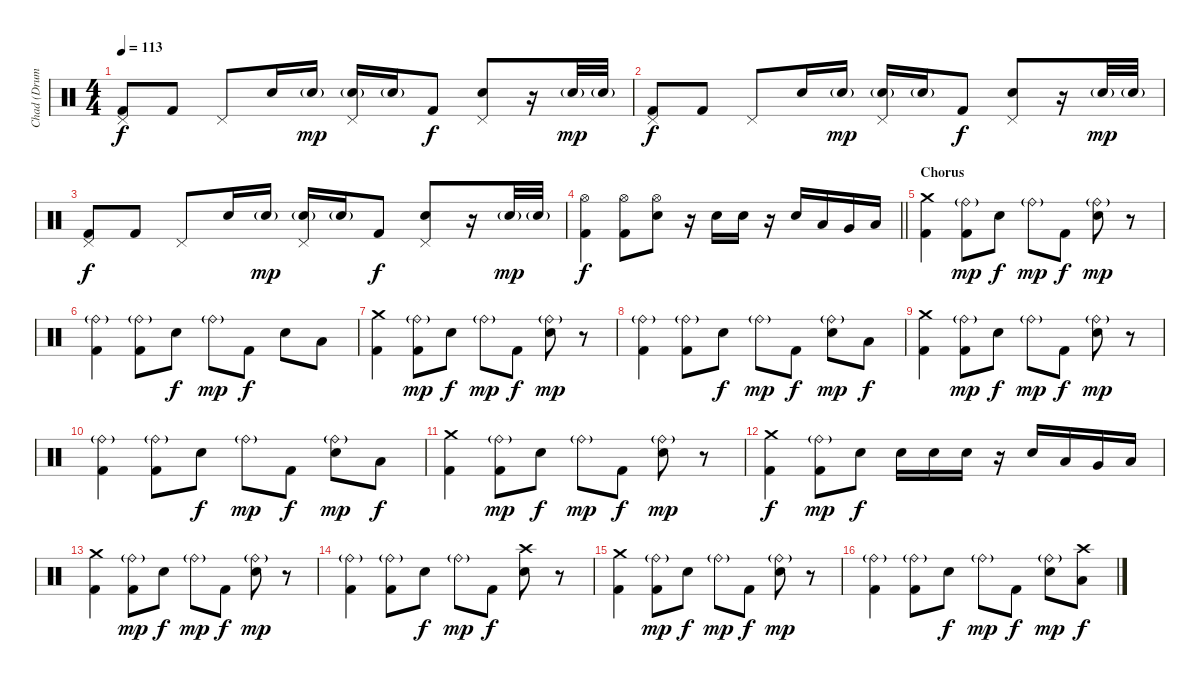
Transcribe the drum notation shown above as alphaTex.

\track ("Chad (Drums)" "Chad (Drum") {instrument percussion}
\staff {score}
\articulation defaults
\ts (4 4)
\tempo 113
\clef neutral
\ks c
("Pedal Hi-Hat (hit)" "Kick (hit) 2").8{dy f} "Kick (hit) 2".8 "Pedal Hi-Hat (hit)".8 "Snare (hit) 2".16 "Snare (hit) 2"{g}.16{dy mp} ("Pedal Hi-Hat (hit)" "Snare (hit) 2"{g}).16 "Snare (hit) 2"{g}.16 "Kick (hit) 2".8{dy f} ("Pedal Hi-Hat (hit)" "Snare (hit) 2").8 r.16 "Snare (hit) 2"{g}.32{dy mp} "Snare (hit) 2"{g}.32 |
("Pedal Hi-Hat (hit)" "Kick (hit) 2").8{dy f} "Kick (hit) 2".8 "Pedal Hi-Hat (hit)".8 "Snare (hit) 2".16 "Snare (hit) 2"{g}.16{dy mp} ("Pedal Hi-Hat (hit)" "Snare (hit) 2"{g}).16 "Snare (hit) 2"{g}.16 "Kick (hit) 2".8{dy f} ("Pedal Hi-Hat (hit)" "Snare (hit) 2").8 r.16 "Snare (hit) 2"{g}.32{dy mp} "Snare (hit) 2"{g}.32 |
("Pedal Hi-Hat (hit)" "Kick (hit) 2").8{dy f} "Kick (hit) 2".8 "Pedal Hi-Hat (hit)".8 "Snare (hit) 2".16 "Snare (hit) 2"{g}.16{dy mp} ("Pedal Hi-Hat (hit)" "Snare (hit) 2"{g}).16 "Snare (hit) 2"{g}.16 "Kick (hit) 2".8{dy f} ("Pedal Hi-Hat (hit)" "Snare (hit) 2").8 r.16 "Snare (hit) 2"{g}.32{dy mp} "Snare (hit) 2"{g}.32 |
\barLineRight lightlight
("Hi-Hat (open)" "Kick (hit) 2").4{dy f} ("Hi-Hat (open)" "Kick (hit) 2").8 ("Hi-Hat (open)" "Snare (hit) 2").8 r.16 "Snare (hit) 2".16 "Snare (hit) 2".16 r.16 "Snare (hit) 2".16 "Low Tom (hit)".16 "Very Low Tom (hit)".16 "Low Floor Tom (hit)".16 |
\section ("" "Chorus")
("Crash medium (hit)" "Kick (hit) 2").4 ("Ride (bell)"{g} "Kick (hit) 2").8{dy mp} "Snare (hit) 2".8{dy f} "Ride (bell)"{g}.8{dy mp} "Kick (hit) 2".8{dy f} ("Ride (bell)"{g} "Snare (hit) 2").8{dy mp} r.8 |
("Ride (bell)"{g} "Kick (hit) 2").4 ("Ride (bell)"{g} "Kick (hit) 2").8 "Snare (hit) 2".8{dy f} "Ride (bell)"{g}.8{dy mp} "Kick (hit) 2".8{dy f} "Snare (hit) 2".8 "Low Floor Tom (hit)".8 |
("Crash medium (hit)" "Kick (hit) 2").4 ("Ride (bell)"{g} "Kick (hit) 2").8{dy mp} "Snare (hit) 2".8{dy f} "Ride (bell)"{g}.8{dy mp} "Kick (hit) 2".8{dy f} ("Ride (bell)"{g} "Snare (hit) 2").8{dy mp} r.8 |
("Ride (bell)"{g} "Kick (hit) 2").4 ("Ride (bell)"{g} "Kick (hit) 2").8 "Snare (hit) 2".8{dy f} "Ride (bell)"{g}.8{dy mp} "Kick (hit) 2".8{dy f} ("Ride (bell)"{g} "Snare (hit) 2").8{dy mp} "Low Floor Tom (hit)".8{dy f} |
("Crash medium (hit)" "Kick (hit) 2").4 ("Ride (bell)"{g} "Kick (hit) 2").8{dy mp} "Snare (hit) 2".8{dy f} "Ride (bell)"{g}.8{dy mp} "Kick (hit) 2".8{dy f} ("Ride (bell)"{g} "Snare (hit) 2").8{dy mp} r.8 |
("Ride (bell)"{g} "Kick (hit) 2").4 ("Ride (bell)"{g} "Kick (hit) 2").8 "Snare (hit) 2".8{dy f} "Ride (bell)"{g}.8{dy mp} "Kick (hit) 2".8{dy f} ("Ride (bell)"{g} "Snare (hit) 2").8{dy mp} "Low Floor Tom (hit)".8{dy f} |
("Crash medium (hit)" "Kick (hit) 2").4 ("Ride (bell)"{g} "Kick (hit) 2").8{dy mp} "Snare (hit) 2".8{dy f} "Ride (bell)"{g}.8{dy mp} "Kick (hit) 2".8{dy f} ("Ride (bell)"{g} "Snare (hit) 2").8{dy mp} r.8 |
("Crash medium (hit)" "Kick (hit) 2").4{dy f} ("Ride (bell)"{g} "Kick (hit) 2").8{dy mp} "Snare (hit) 2".8{dy f} "Snare (hit) 2".16 "Snare (hit) 2".16 "Snare (hit) 2".16 r.16 "Snare (hit) 2".16 "Low Tom (hit)".16 "Very Low Tom (hit)".16 "Low Floor Tom (hit)".16 |
("Crash medium (hit)" "Kick (hit) 2").4 ("Ride (bell)"{g} "Kick (hit) 2").8{dy mp} "Snare (hit) 2".8{dy f} "Ride (bell)"{g}.8{dy mp} "Kick (hit) 2".8{dy f} ("Ride (bell)"{g} "Snare (hit) 2").8{dy mp} r.8 |
("Ride (bell)"{g} "Kick (hit) 2").4 ("Ride (bell)"{g} "Kick (hit) 2").8 "Snare (hit) 2".8{dy f} "Ride (bell)"{g}.8{dy mp} "Kick (hit) 2".8{dy f} ("Crash high (hit)" "Snare (hit) 2").8 r.8 |
("Crash medium (hit)" "Kick (hit) 2").4 ("Ride (bell)"{g} "Kick (hit) 2").8{dy mp} "Snare (hit) 2".8{dy f} "Ride (bell)"{g}.8{dy mp} "Kick (hit) 2".8{dy f} ("Ride (bell)"{g} "Snare (hit) 2").8{dy mp} r.8 |
("Ride (bell)"{g} "Kick (hit) 2").4 ("Ride (bell)"{g} "Kick (hit) 2").8 "Snare (hit) 2".8{dy f} "Ride (bell)"{g}.8{dy mp} "Kick (hit) 2".8{dy f} ("Ride (bell)"{g} "Snare (hit) 2").8{dy mp} ("Crash high (hit)" "Low Floor Tom (hit)").8{dy f}
